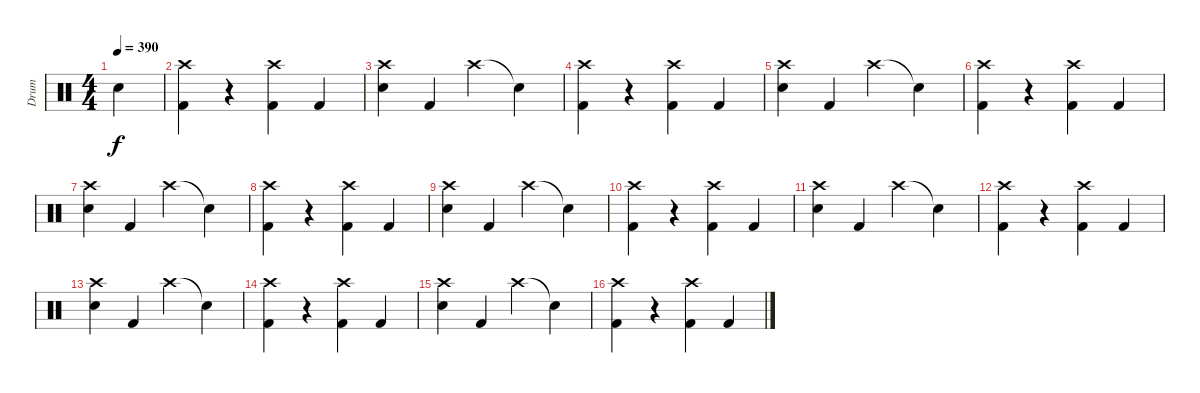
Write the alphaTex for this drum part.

\track ("Drum" "Drum") {instrument percussion}
\staff {score}
\articulation defaults
\ts (4 4)
\tempo 390
\clef neutral
\ks c "Electric Snare (hit)".4{dy f}
|
("Crash high (hit)" "Kick (hit) 2").4 r.4 ("Crash high (hit)" "Kick (hit) 2").4 "Kick (hit) 2".4 |
("Crash high (hit)" "Electric Snare (hit)").4 "Kick (hit) 2".4 "Crash high (hit)".4 "Snare (hit)"{t}.4 |
("Crash high (hit)" "Kick (hit) 2").4 r.4 ("Crash high (hit)" "Kick (hit) 2").4 "Kick (hit) 2".4 |
("Crash high (hit)" "Electric Snare (hit)").4 "Kick (hit) 2".4 "Crash high (hit)".4 "Snare (hit)"{t}.4 |
("Crash high (hit)" "Kick (hit) 2").4 r.4 ("Crash high (hit)" "Kick (hit) 2").4 "Kick (hit) 2".4 |
("Crash high (hit)" "Electric Snare (hit)").4 "Kick (hit) 2".4 "Crash high (hit)".4 "Snare (hit)"{t}.4 |
("Crash high (hit)" "Kick (hit) 2").4 r.4 ("Crash high (hit)" "Kick (hit) 2").4 "Kick (hit) 2".4 |
("Crash high (hit)" "Electric Snare (hit)").4 "Kick (hit) 2".4 "Crash high (hit)".4 "Snare (hit)"{t}.4 |
("Crash high (hit)" "Kick (hit) 2").4 r.4 ("Crash high (hit)" "Kick (hit) 2").4 "Kick (hit) 2".4 |
("Crash high (hit)" "Electric Snare (hit)").4 "Kick (hit) 2".4 "Crash high (hit)".4 "Snare (hit)"{t}.4 |
("Crash high (hit)" "Kick (hit) 2").4 r.4 ("Crash high (hit)" "Kick (hit) 2").4 "Kick (hit) 2".4 |
("Crash high (hit)" "Electric Snare (hit)").4 "Kick (hit) 2".4 "Crash high (hit)".4 "Snare (hit)"{t}.4 |
("Crash high (hit)" "Kick (hit) 2").4 r.4 ("Crash high (hit)" "Kick (hit) 2").4 "Kick (hit) 2".4 |
("Crash high (hit)" "Electric Snare (hit)").4 "Kick (hit) 2".4 "Crash high (hit)".4 "Snare (hit)"{t}.4 |
("Crash high (hit)" "Kick (hit) 2").4 r.4 ("Crash high (hit)" "Kick (hit) 2").4 "Kick (hit) 2".4
